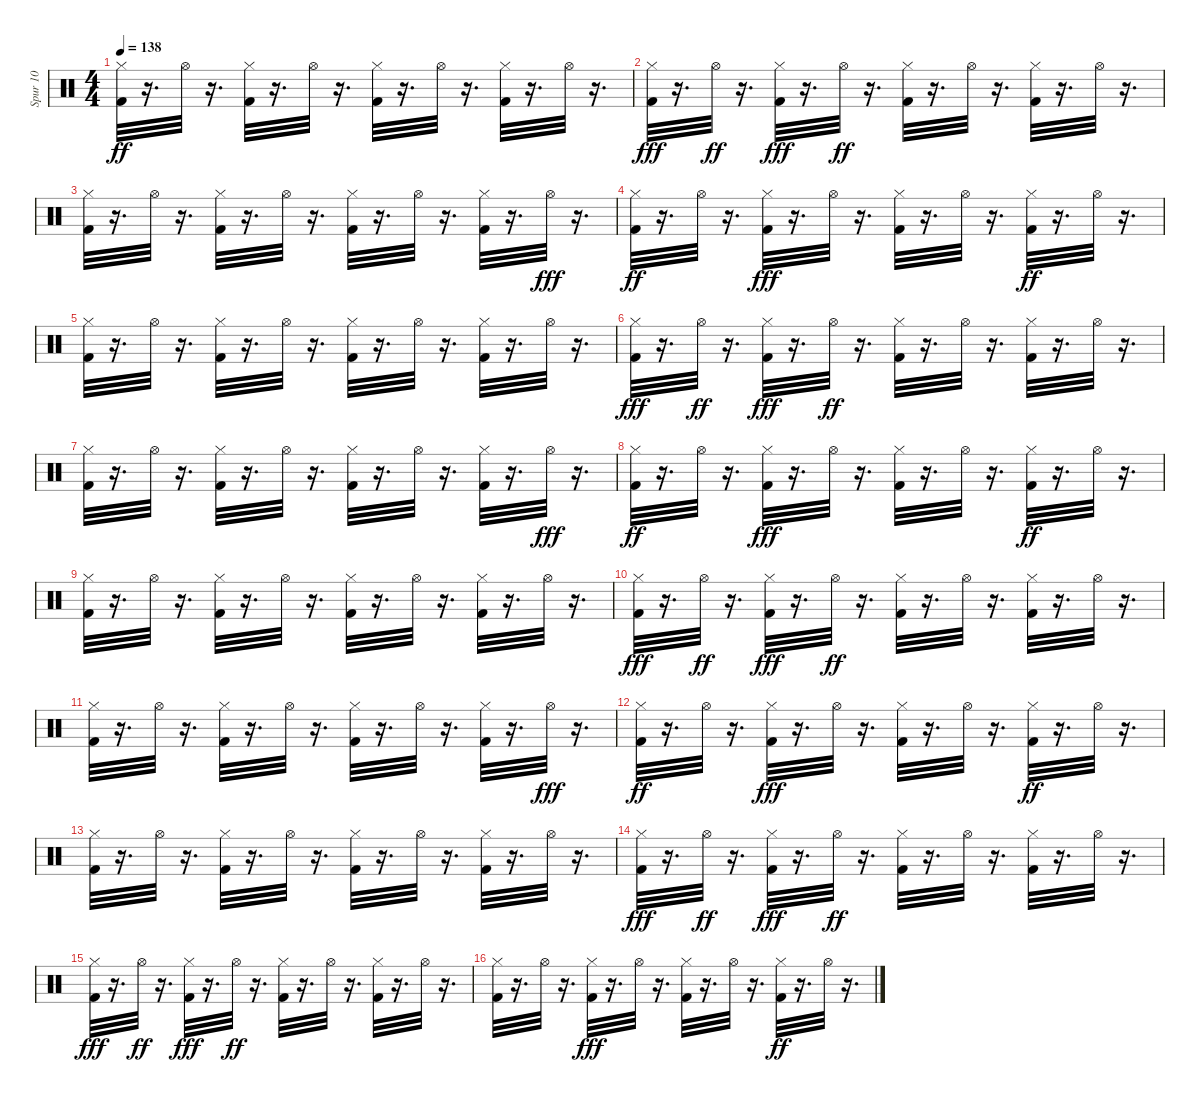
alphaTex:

\track ("Spur 10" "Spur 10") {instrument percussion}
\staff {score}
\articulation defaults
\ts (4 4)
\tempo 138
\clef neutral
\ks c
("Kick (hit) 2" "Hi-Hat (closed)").32{dy ff} r.16{d} "Hi-Hat (open)".32 r.16{d} ("Kick (hit) 2" "Hi-Hat (closed)").32 r.16{d} "Hi-Hat (open)".32 r.16{d} ("Kick (hit) 2" "Hi-Hat (closed)").32 r.16{d} "Hi-Hat (open)".32 r.16{d} ("Kick (hit) 2" "Hi-Hat (closed)").32 r.16{d} "Hi-Hat (open)".32 r.16{d} |
("Kick (hit) 2" "Hi-Hat (closed)").32{dy fff} r.16{d} "Hi-Hat (open)".32{dy ff} r.16{d} ("Kick (hit) 2" "Hi-Hat (closed)").32{dy fff} r.16{d} "Hi-Hat (open)".32{dy ff} r.16{d} ("Kick (hit) 2" "Hi-Hat (closed)").32 r.16{d} "Hi-Hat (open)".32 r.16{d} ("Kick (hit) 2" "Hi-Hat (closed)").32 r.16{d} "Hi-Hat (open)".32 r.16{d} |
("Kick (hit) 2" "Hi-Hat (closed)").32 r.16{d} "Hi-Hat (open)".32 r.16{d} ("Kick (hit) 2" "Hi-Hat (closed)").32 r.16{d} "Hi-Hat (open)".32 r.16{d} ("Kick (hit) 2" "Hi-Hat (closed)").32 r.16{d} "Hi-Hat (open)".32 r.16{d} ("Kick (hit) 2" "Hi-Hat (closed)").32 r.16{d} "Hi-Hat (open)".32{dy fff} r.16{d} |
("Kick (hit) 2" "Hi-Hat (closed)").32{dy ff} r.16{d} "Hi-Hat (open)".32 r.16{d} ("Kick (hit) 2" "Hi-Hat (closed)").32{dy fff} r.16{d} "Hi-Hat (open)".32 r.16{d} ("Kick (hit) 2" "Hi-Hat (closed)").32 r.16{d} "Hi-Hat (open)".32 r.16{d} ("Kick (hit) 2" "Hi-Hat (closed)").32{dy ff} r.16{d} "Hi-Hat (open)".32 r.16{d} |
("Kick (hit) 2" "Hi-Hat (closed)").32 r.16{d} "Hi-Hat (open)".32 r.16{d} ("Kick (hit) 2" "Hi-Hat (closed)").32 r.16{d} "Hi-Hat (open)".32 r.16{d} ("Kick (hit) 2" "Hi-Hat (closed)").32 r.16{d} "Hi-Hat (open)".32 r.16{d} ("Kick (hit) 2" "Hi-Hat (closed)").32 r.16{d} "Hi-Hat (open)".32 r.16{d} |
("Kick (hit) 2" "Hi-Hat (closed)").32{dy fff} r.16{d} "Hi-Hat (open)".32{dy ff} r.16{d} ("Kick (hit) 2" "Hi-Hat (closed)").32{dy fff} r.16{d} "Hi-Hat (open)".32{dy ff} r.16{d} ("Kick (hit) 2" "Hi-Hat (closed)").32 r.16{d} "Hi-Hat (open)".32 r.16{d} ("Kick (hit) 2" "Hi-Hat (closed)").32 r.16{d} "Hi-Hat (open)".32 r.16{d} |
("Kick (hit) 2" "Hi-Hat (closed)").32 r.16{d} "Hi-Hat (open)".32 r.16{d} ("Kick (hit) 2" "Hi-Hat (closed)").32 r.16{d} "Hi-Hat (open)".32 r.16{d} ("Kick (hit) 2" "Hi-Hat (closed)").32 r.16{d} "Hi-Hat (open)".32 r.16{d} ("Kick (hit) 2" "Hi-Hat (closed)").32 r.16{d} "Hi-Hat (open)".32{dy fff} r.16{d} |
("Kick (hit) 2" "Hi-Hat (closed)").32{dy ff} r.16{d} "Hi-Hat (open)".32 r.16{d} ("Kick (hit) 2" "Hi-Hat (closed)").32{dy fff} r.16{d} "Hi-Hat (open)".32 r.16{d} ("Kick (hit) 2" "Hi-Hat (closed)").32 r.16{d} "Hi-Hat (open)".32 r.16{d} ("Kick (hit) 2" "Hi-Hat (closed)").32{dy ff} r.16{d} "Hi-Hat (open)".32 r.16{d} |
("Kick (hit) 2" "Hi-Hat (closed)").32 r.16{d} "Hi-Hat (open)".32 r.16{d} ("Kick (hit) 2" "Hi-Hat (closed)").32 r.16{d} "Hi-Hat (open)".32 r.16{d} ("Kick (hit) 2" "Hi-Hat (closed)").32 r.16{d} "Hi-Hat (open)".32 r.16{d} ("Kick (hit) 2" "Hi-Hat (closed)").32 r.16{d} "Hi-Hat (open)".32 r.16{d} |
("Kick (hit) 2" "Hi-Hat (closed)").32{dy fff} r.16{d} "Hi-Hat (open)".32{dy ff} r.16{d} ("Kick (hit) 2" "Hi-Hat (closed)").32{dy fff} r.16{d} "Hi-Hat (open)".32{dy ff} r.16{d} ("Kick (hit) 2" "Hi-Hat (closed)").32 r.16{d} "Hi-Hat (open)".32 r.16{d} ("Kick (hit) 2" "Hi-Hat (closed)").32 r.16{d} "Hi-Hat (open)".32 r.16{d} |
("Kick (hit) 2" "Hi-Hat (closed)").32 r.16{d} "Hi-Hat (open)".32 r.16{d} ("Kick (hit) 2" "Hi-Hat (closed)").32 r.16{d} "Hi-Hat (open)".32 r.16{d} ("Kick (hit) 2" "Hi-Hat (closed)").32 r.16{d} "Hi-Hat (open)".32 r.16{d} ("Kick (hit) 2" "Hi-Hat (closed)").32 r.16{d} "Hi-Hat (open)".32{dy fff} r.16{d} |
("Kick (hit) 2" "Hi-Hat (closed)").32{dy ff} r.16{d} "Hi-Hat (open)".32 r.16{d} ("Kick (hit) 2" "Hi-Hat (closed)").32{dy fff} r.16{d} "Hi-Hat (open)".32 r.16{d} ("Kick (hit) 2" "Hi-Hat (closed)").32 r.16{d} "Hi-Hat (open)".32 r.16{d} ("Kick (hit) 2" "Hi-Hat (closed)").32{dy ff} r.16{d} "Hi-Hat (open)".32 r.16{d} |
("Kick (hit) 2" "Hi-Hat (closed)").32 r.16{d} "Hi-Hat (open)".32 r.16{d} ("Kick (hit) 2" "Hi-Hat (closed)").32 r.16{d} "Hi-Hat (open)".32 r.16{d} ("Kick (hit) 2" "Hi-Hat (closed)").32 r.16{d} "Hi-Hat (open)".32 r.16{d} ("Kick (hit) 2" "Hi-Hat (closed)").32 r.16{d} "Hi-Hat (open)".32 r.16{d} |
("Kick (hit) 2" "Hi-Hat (closed)").32{dy fff} r.16{d} "Hi-Hat (open)".32{dy ff} r.16{d} ("Kick (hit) 2" "Hi-Hat (closed)").32{dy fff} r.16{d} "Hi-Hat (open)".32{dy ff} r.16{d} ("Kick (hit) 2" "Hi-Hat (closed)").32 r.16{d} "Hi-Hat (open)".32 r.16{d} ("Kick (hit) 2" "Hi-Hat (closed)").32 r.16{d} "Hi-Hat (open)".32 r.16{d} |
("Kick (hit) 2" "Hi-Hat (closed)").32{dy fff} r.16{d} "Hi-Hat (open)".32{dy ff} r.16{d} ("Kick (hit) 2" "Hi-Hat (closed)").32{dy fff} r.16{d} "Hi-Hat (open)".32{dy ff} r.16{d} ("Kick (hit) 2" "Hi-Hat (closed)").32 r.16{d} "Hi-Hat (open)".32 r.16{d} ("Kick (hit) 2" "Hi-Hat (closed)").32 r.16{d} "Hi-Hat (open)".32 r.16{d} |
("Kick (hit) 2" "Hi-Hat (closed)").32 r.16{d} "Hi-Hat (open)".32 r.16{d} ("Kick (hit) 2" "Hi-Hat (closed)").32{dy fff} r.16{d} "Hi-Hat (open)".32 r.16{d} ("Kick (hit) 2" "Hi-Hat (closed)").32 r.16{d} "Hi-Hat (open)".32 r.16{d} ("Kick (hit) 2" "Hi-Hat (closed)").32{dy ff} r.16{d} "Hi-Hat (open)".32 r.16{d}
